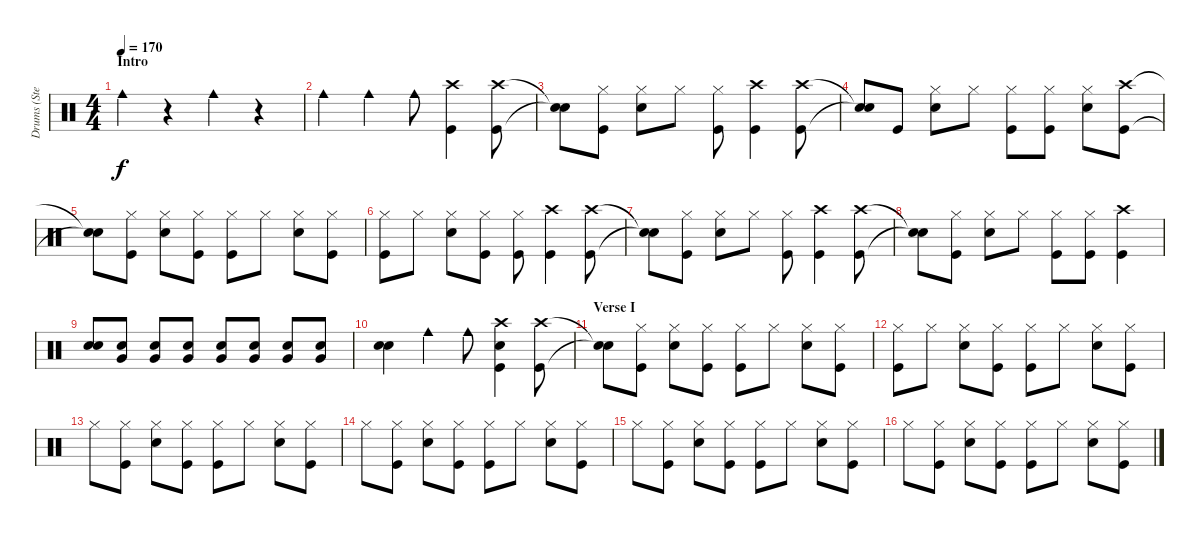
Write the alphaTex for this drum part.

\track ("Drums (Steven)" "Drums (Ste") {instrument percussion}
\staff {score}
\articulation defaults
\ts (4 4)
\section ("" "Intro")
\tempo 170
\clef neutral
\ks c "Cowbell medium (hit)".4{dy f}
r.4 "Cowbell medium (hit)".4 r.4 |
"Cowbell medium (hit)".4 "Cowbell medium (hit)".4 "Cowbell medium (hit)".8 ("Crash high (hit)" "Kick (hit)").4 ("Crash high (hit)" "Kick (hit)").8 |
("Snare (hit)"{t} "Snare (hit)"{t}).8 ("Hi-Hat (closed)" "Kick (hit)").8 ("Hi-Hat (closed)" "Snare (hit) 2").8 "Hi-Hat (closed)".8 ("Hi-Hat (closed)" "Kick (hit)").8 ("Crash high (hit)" "Kick (hit)").4 ("Crash high (hit)" "Kick (hit)").8 |
("Snare (hit)"{t} "Snare (hit)"{t}).8 "Kick (hit)".8 ("Hi-Hat (closed)" "Snare (hit) 2").8 "Hi-Hat (closed)".8 ("Hi-Hat (closed)" "Kick (hit)").8 ("Hi-Hat (closed)" "Kick (hit)").8 ("Hi-Hat (closed)" "Snare (hit) 2").8 ("Crash high (hit)" "Kick (hit)").8 |
("Snare (hit)"{t} "Snare (hit)"{t}).8 ("Hi-Hat (closed)" "Kick (hit)").8 ("Hi-Hat (closed)" "Snare (hit) 2").8 ("Hi-Hat (closed)" "Kick (hit)").8 ("Hi-Hat (closed)" "Kick (hit)").8 "Hi-Hat (closed)".8 ("Hi-Hat (closed)" "Snare (hit) 2").8 ("Hi-Hat (closed)" "Kick (hit)").8 |
("Hi-Hat (closed)" "Kick (hit)").8 "Hi-Hat (closed)".8 ("Hi-Hat (closed)" "Snare (hit) 2").8 ("Hi-Hat (closed)" "Kick (hit)").8 ("Hi-Hat (closed)" "Kick (hit)").8 ("Crash high (hit)" "Kick (hit)").4 ("Crash high (hit)" "Kick (hit)").8 |
("Snare (hit)"{t} "Snare (hit)"{t}).8 ("Hi-Hat (closed)" "Kick (hit)").8 ("Hi-Hat (closed)" "Snare (hit) 2").8 "Hi-Hat (closed)".8 ("Hi-Hat (closed)" "Kick (hit)").8 ("Crash high (hit)" "Kick (hit)").4 ("Crash high (hit)" "Kick (hit)").8 |
("Snare (hit)"{t} "Snare (hit)"{t}).8 ("Hi-Hat (closed)" "Kick (hit)").8 ("Hi-Hat (closed)" "Snare (hit) 2").8 "Hi-Hat (closed)".8 ("Hi-Hat (closed)" "Kick (hit)").8 ("Hi-Hat (closed)" "Kick (hit)").8 ("Crash high (hit)" "Kick (hit)").4 |
("Snare (hit) 2" "Snare (hit) 2").8 ("Snare (hit) 2" "Very Low Tom (hit)").8 ("Snare (hit) 2" "Very Low Tom (hit)").8 ("Snare (hit) 2" "Very Low Tom (hit)").8 ("Snare (hit) 2" "Very Low Tom (hit)").8 ("Snare (hit) 2" "Very Low Tom (hit)").8 ("Snare (hit) 2" "Very Low Tom (hit)").8 ("Snare (hit) 2" "Very Low Tom (hit)").8 |
("Snare (hit) 2" "Snare (hit) 2").4 "Cowbell medium (hit)".4 "Cowbell medium (hit)".8 ("Crash high (hit)" "Kick (hit)" "Snare (hit)").4 ("Crash high (hit)" "Kick (hit)").8 |
\section ("" "Verse I")
("Snare (hit)"{t} "Snare (hit)"{t}).8 ("Hi-Hat (closed)" "Kick (hit)").8 ("Hi-Hat (closed)" "Snare (hit) 2").8 ("Hi-Hat (closed)" "Kick (hit)").8 ("Hi-Hat (closed)" "Kick (hit)").8 "Hi-Hat (closed)".8 ("Hi-Hat (closed)" "Snare (hit) 2").8 ("Hi-Hat (closed)" "Kick (hit)").8 |
("Hi-Hat (closed)" "Kick (hit)").8 "Hi-Hat (closed)".8 ("Hi-Hat (closed)" "Snare (hit) 2").8 ("Hi-Hat (closed)" "Kick (hit)").8 ("Hi-Hat (closed)" "Kick (hit)").8 "Hi-Hat (closed)".8 ("Hi-Hat (closed)" "Snare (hit) 2").8 ("Hi-Hat (closed)" "Kick (hit)").8 |
"Hi-Hat (closed)".8 ("Hi-Hat (closed)" "Kick (hit)").8 ("Hi-Hat (closed)" "Snare (hit) 2").8 ("Hi-Hat (closed)" "Kick (hit)").8 ("Hi-Hat (closed)" "Kick (hit)").8 "Hi-Hat (closed)".8 ("Hi-Hat (closed)" "Snare (hit) 2").8 ("Hi-Hat (closed)" "Kick (hit)").8 |
"Hi-Hat (closed)".8 ("Hi-Hat (closed)" "Kick (hit)").8 ("Hi-Hat (closed)" "Snare (hit) 2").8 ("Hi-Hat (closed)" "Kick (hit)").8 ("Hi-Hat (closed)" "Kick (hit)").8 "Hi-Hat (closed)".8 ("Hi-Hat (closed)" "Snare (hit) 2").8 ("Hi-Hat (closed)" "Kick (hit)").8 |
"Hi-Hat (closed)".8 ("Hi-Hat (closed)" "Kick (hit)").8 ("Hi-Hat (closed)" "Snare (hit) 2").8 ("Hi-Hat (closed)" "Kick (hit)").8 ("Hi-Hat (closed)" "Kick (hit)").8 "Hi-Hat (closed)".8 ("Hi-Hat (closed)" "Snare (hit) 2").8 ("Hi-Hat (closed)" "Kick (hit)").8 |
"Hi-Hat (closed)".8 ("Hi-Hat (closed)" "Kick (hit)").8 ("Hi-Hat (closed)" "Snare (hit) 2").8 ("Hi-Hat (closed)" "Kick (hit)").8 ("Hi-Hat (closed)" "Kick (hit)").8 "Hi-Hat (closed)".8 ("Hi-Hat (closed)" "Snare (hit) 2").8 ("Hi-Hat (closed)" "Kick (hit)").8
